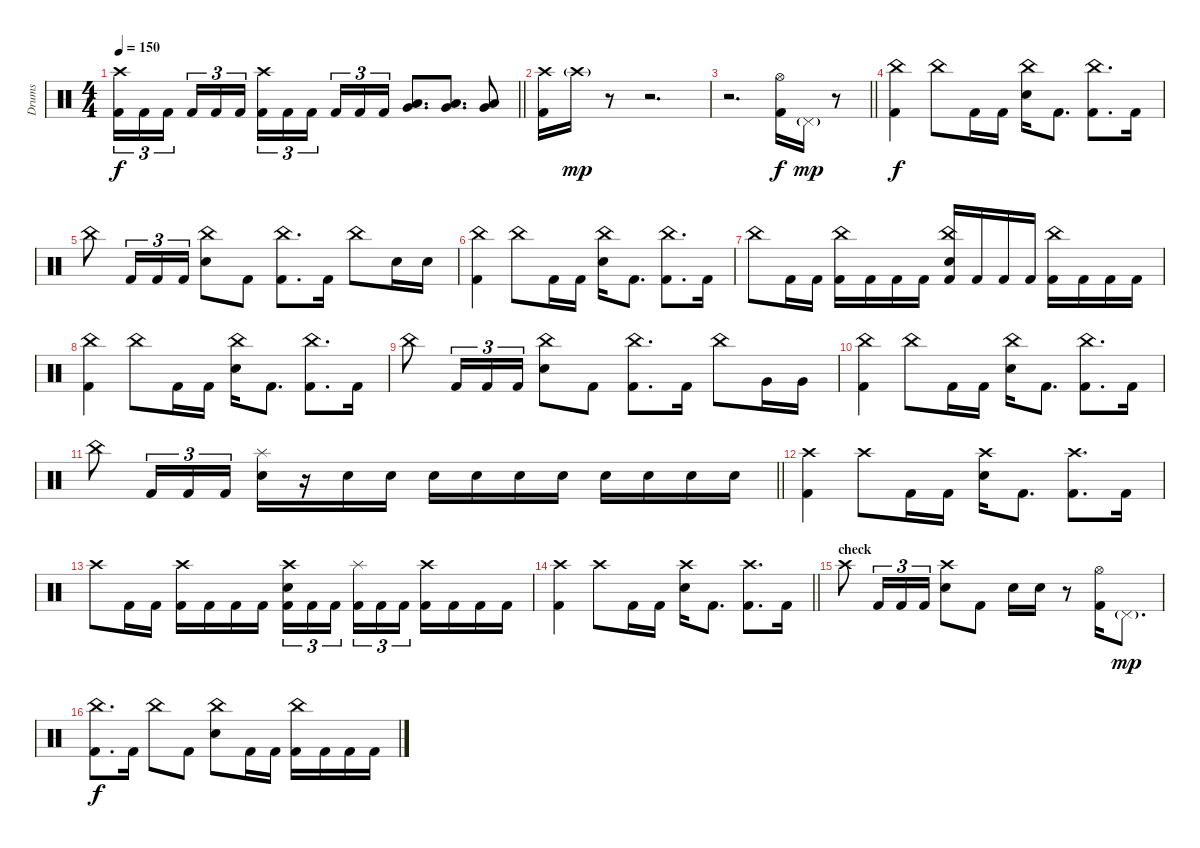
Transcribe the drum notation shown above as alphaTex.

\track ("Drums" "Drums") {instrument percussion}
\staff {score}
\articulation defaults
\ts (4 4)
\tempo 150
\clef neutral
\barLineRight lightlight
\ks c
("Crash high (hit)" "Kick (hit) 2").16{tu (3 2) dy f} "Kick (hit) 2".16{tu (3 2)} "Kick (hit) 2".16{tu (3 2) beam splitsecondary} "Kick (hit) 2".16{tu (3 2)} "Kick (hit) 2".16{tu (3 2)} "Kick (hit) 2".16{tu (3 2)} ("Crash high (hit)" "Kick (hit) 2").16{tu (3 2)} "Kick (hit) 2".16{tu (3 2)} "Kick (hit) 2".16{tu (3 2) beam splitsecondary} "Kick (hit) 2".16{tu (3 2)} "Kick (hit) 2".16{tu (3 2)} "Kick (hit) 2".16{tu (3 2)} ("Low Tom (hit)" "Very Low Tom (hit)").8{d} ("Low Tom (hit)" "Very Low Tom (hit)").8{d} ("Low Tom (hit)" "Very Low Tom (hit)").8 |
("Crash high (hit)" "Kick (hit) 2").16 "Crash high (hit)"{g}.16{dy mp} r.8 r.2{d} |
\barLineRight lightlight
r.2{d} ("Hi-Hat (open)" "Kick (hit) 2").16{dy f} "Pedal Hi-Hat (hit)"{g}.16{dy mp} r.8 |
("China (hit)" "Kick (hit) 2").4{dy f} "China (hit)".8 "Kick (hit) 2".16 "Kick (hit) 2".16 ("China (hit)" "Snare (hit) 2").16 "Kick (hit) 2".8{d} ("China (hit)" "Kick (hit) 2").8{d} "Kick (hit) 2".16 |
"China (hit)".8 "Kick (hit) 2".16{tu (3 2)} "Kick (hit) 2".16{tu (3 2)} "Kick (hit) 2".16{tu (3 2)} ("China (hit)" "Snare (hit) 2").8 "Kick (hit) 2".8 ("China (hit)" "Kick (hit) 2").8{d} "Kick (hit) 2".16 "China (hit)".8 "Snare (hit) 2".16 "Snare (hit) 2".16 |
("China (hit)" "Kick (hit) 2").4 "China (hit)".8 "Kick (hit) 2".16 "Kick (hit) 2".16 ("China (hit)" "Snare (hit) 2").16 "Kick (hit) 2".8{d} ("China (hit)" "Kick (hit) 2").8{d} "Kick (hit) 2".16 |
"China (hit)".8 "Kick (hit) 2".16 "Kick (hit) 2".16 ("China (hit)" "Kick (hit) 2").16 "Kick (hit) 2".16 "Kick (hit) 2".16 "Kick (hit) 2".16 ("China (hit)" "Snare (hit) 2" "Kick (hit) 2").16 "Kick (hit) 2".16 "Kick (hit) 2".16 "Kick (hit) 2".16 ("China (hit)" "Kick (hit) 2").16 "Kick (hit) 2".16 "Kick (hit) 2".16 "Kick (hit) 2".16 |
("China (hit)" "Kick (hit) 2").4 "China (hit)".8 "Kick (hit) 2".16 "Kick (hit) 2".16 ("China (hit)" "Snare (hit) 2").16 "Kick (hit) 2".8{d} ("China (hit)" "Kick (hit) 2").8{d} "Kick (hit) 2".16 |
"China (hit)".8 "Kick (hit) 2".16{tu (3 2)} "Kick (hit) 2".16{tu (3 2)} "Kick (hit) 2".16{tu (3 2)} ("China (hit)" "Snare (hit) 2").8 "Kick (hit) 2".8 ("China (hit)" "Kick (hit) 2").8{d} "Kick (hit) 2".16 "China (hit)".8 "Very Low Tom (hit)".16 "Very Low Tom (hit)".16 |
("China (hit)" "Kick (hit) 2").4 "China (hit)".8 "Kick (hit) 2".16 "Kick (hit) 2".16 ("China (hit)" "Snare (hit) 2").16 "Kick (hit) 2".8{d} ("China (hit)" "Kick (hit) 2").8{d} "Kick (hit) 2".16 |
\barLineRight lightlight "China (hit)".8 "Kick (hit) 2".16{tu (3 2)} "Kick (hit) 2".16{tu (3 2)} "Kick (hit) 2".16{tu (3 2)}
("Splash (hit)" "Snare (hit) 2").16 r.16{volume 8} "Snare (hit) 2".16{volume 13} "Snare (hit) 2".16 "Snare (hit) 2".16 "Snare (hit) 2".16 "Snare (hit) 2".16 "Snare (hit) 2".16 "Snare (hit) 2".16 "Snare (hit) 2".16 "Snare (hit) 2".16 "Snare (hit) 2".16 |
("Crash high (hit)" "Kick (hit) 2").4 "Crash high (hit)".8 "Kick (hit) 2".16 "Kick (hit) 2".16 ("Crash high (hit)" "Snare (hit) 2").16 "Kick (hit) 2".8{d} ("Crash high (hit)" "Kick (hit) 2").8{d} "Kick (hit) 2".16 |
"Crash high (hit)".8 "Kick (hit) 2".16 "Kick (hit) 2".16 ("Crash high (hit)" "Kick (hit) 2").16 "Kick (hit) 2".16 "Kick (hit) 2".16 "Kick (hit) 2".16 ("Crash high (hit)" "Snare (hit) 2" "Kick (hit) 2").16{tu (3 2)} "Kick (hit) 2".16{tu (3 2)} "Kick (hit) 2".16{tu (3 2) beam splitsecondary} ("Splash (hit)" "Kick (hit) 2").16{tu (3 2)} "Kick (hit) 2".16{tu (3 2)} "Kick (hit) 2".16{tu (3 2)} ("Crash high (hit)" "Kick (hit) 2").16 "Kick (hit) 2".16 "Kick (hit) 2".16 "Kick (hit) 2".16 |
\barLineRight lightlight
("Crash high (hit)" "Kick (hit) 2").4 "Crash high (hit)".8 "Kick (hit) 2".16 "Kick (hit) 2".16 ("Crash high (hit)" "Snare (hit) 2").16 "Kick (hit) 2".8{d} ("Crash high (hit)" "Kick (hit) 2").8{d} "Kick (hit) 2".16 |
\section ("" "check")
"Crash high (hit)".8 "Kick (hit) 2".16{tu (3 2)} "Kick (hit) 2".16{tu (3 2)} "Kick (hit) 2".16{tu (3 2)} ("Crash high (hit)" "Snare (hit) 2").8 "Kick (hit) 2".8 "Snare (hit) 2".16 "Snare (hit) 2".16 r.8 ("Hi-Hat (open)" "Kick (hit) 2").16 "Pedal Hi-Hat (hit)"{g}.8{d dy mp} |
("China (hit)" "Kick (hit) 2").8{d dy f} "Kick (hit) 2".16 "China (hit)".8 "Kick (hit) 2".8 ("China (hit)" "Snare (hit) 2").8 "Kick (hit) 2".16 "Kick (hit) 2".16 ("China (hit)" "Kick (hit) 2").16 "Kick (hit) 2".16 "Kick (hit) 2".16 "Kick (hit) 2".16
